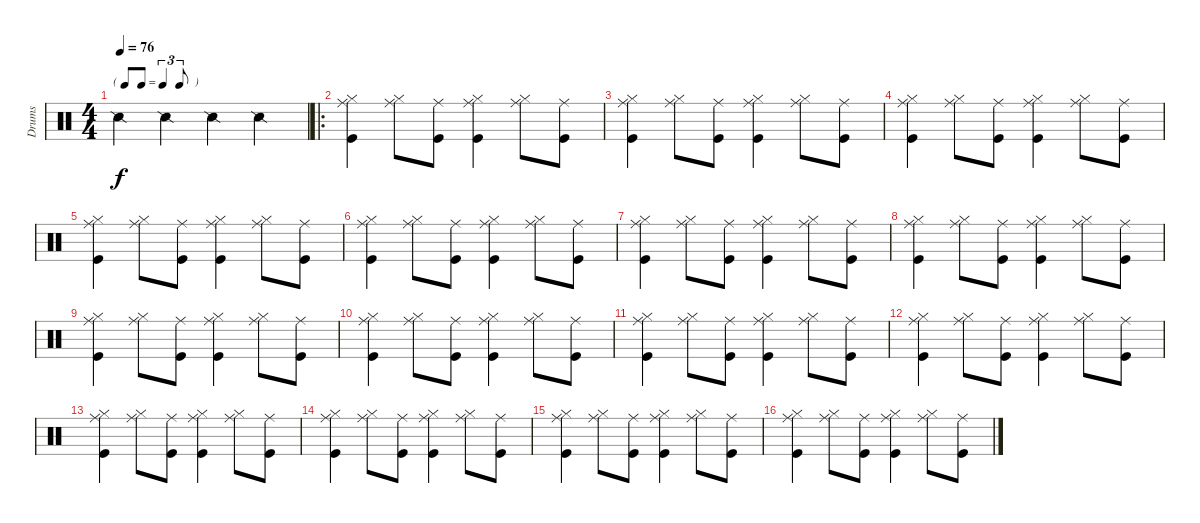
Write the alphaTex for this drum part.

\track ("Drums" "Drums") {instrument percussion}
\staff {score}
\articulation defaults
\ts (4 4)
\tf triplet8th
\tempo 76
\clef neutral
\ks c "Snare (side stick) 2".4{dy f} "Snare (side stick) 2".4 "Snare (side stick) 2".4 "Snare (side stick) 2".4
|
\ro
("Ride (middle)" "Hi-Hat (closed)" "Kick (hit)").4 ("Hi-Hat (closed)" "Ride (middle)").8 ("Kick (hit)" "Ride (middle)").8 ("Hi-Hat (closed)" "Ride (middle)" "Kick (hit)").4 ("Hi-Hat (closed)" "Ride (middle)").8 ("Kick (hit)" "Ride (middle)").8 |
("Kick (hit)" "Hi-Hat (closed)" "Ride (middle)").4 ("Hi-Hat (closed)" "Ride (middle)").8 ("Kick (hit)" "Ride (middle)").8 ("Hi-Hat (closed)" "Ride (middle)" "Kick (hit)").4 ("Hi-Hat (closed)" "Ride (middle)").8 ("Kick (hit)" "Ride (middle)").8 |
("Kick (hit)" "Hi-Hat (closed)" "Ride (middle)").4 ("Hi-Hat (closed)" "Ride (middle)").8 ("Kick (hit)" "Ride (middle)").8 ("Hi-Hat (closed)" "Ride (middle)" "Kick (hit)").4 ("Hi-Hat (closed)" "Ride (middle)").8 ("Kick (hit)" "Ride (middle)").8 |
("Kick (hit)" "Hi-Hat (closed)" "Ride (middle)").4 ("Hi-Hat (closed)" "Ride (middle)").8 ("Kick (hit)" "Ride (middle)").8 ("Hi-Hat (closed)" "Ride (middle)" "Kick (hit)").4 ("Hi-Hat (closed)" "Ride (middle)").8 ("Kick (hit)" "Ride (middle)").8 |
("Kick (hit)" "Hi-Hat (closed)" "Ride (middle)").4 ("Hi-Hat (closed)" "Ride (middle)").8 ("Kick (hit)" "Ride (middle)").8 ("Hi-Hat (closed)" "Ride (middle)" "Kick (hit)").4 ("Hi-Hat (closed)" "Ride (middle)").8 ("Kick (hit)" "Ride (middle)").8 |
("Kick (hit)" "Hi-Hat (closed)" "Ride (middle)").4 ("Hi-Hat (closed)" "Ride (middle)").8 ("Kick (hit)" "Ride (middle)").8 ("Hi-Hat (closed)" "Ride (middle)" "Kick (hit)").4 ("Hi-Hat (closed)" "Ride (middle)").8 ("Kick (hit)" "Ride (middle)").8 |
("Kick (hit)" "Hi-Hat (closed)" "Ride (middle)").4 ("Hi-Hat (closed)" "Ride (middle)").8 ("Kick (hit)" "Ride (middle)").8 ("Hi-Hat (closed)" "Ride (middle)" "Kick (hit)").4 ("Hi-Hat (closed)" "Ride (middle)").8 ("Kick (hit)" "Ride (middle)").8 |
("Kick (hit)" "Hi-Hat (closed)" "Ride (middle)").4 ("Hi-Hat (closed)" "Ride (middle)").8 ("Kick (hit)" "Ride (middle)").8 ("Hi-Hat (closed)" "Ride (middle)" "Kick (hit)").4 ("Hi-Hat (closed)" "Ride (middle)").8 ("Kick (hit)" "Ride (middle)").8 |
("Kick (hit)" "Hi-Hat (closed)" "Ride (middle)").4 ("Hi-Hat (closed)" "Ride (middle)").8 ("Kick (hit)" "Ride (middle)").8 ("Hi-Hat (closed)" "Ride (middle)" "Kick (hit)").4 ("Hi-Hat (closed)" "Ride (middle)").8 ("Kick (hit)" "Ride (middle)").8 |
("Kick (hit)" "Hi-Hat (closed)" "Ride (middle)").4 ("Hi-Hat (closed)" "Ride (middle)").8 ("Kick (hit)" "Ride (middle)").8 ("Hi-Hat (closed)" "Ride (middle)" "Kick (hit)").4 ("Hi-Hat (closed)" "Ride (middle)").8 ("Kick (hit)" "Ride (middle)").8 |
("Kick (hit)" "Hi-Hat (closed)" "Ride (middle)").4 ("Hi-Hat (closed)" "Ride (middle)").8 ("Kick (hit)" "Ride (middle)").8 ("Hi-Hat (closed)" "Ride (middle)" "Kick (hit)").4 ("Hi-Hat (closed)" "Ride (middle)").8 ("Kick (hit)" "Ride (middle)").8 |
("Kick (hit)" "Hi-Hat (closed)" "Ride (middle)").4 ("Hi-Hat (closed)" "Ride (middle)").8 ("Kick (hit)" "Ride (middle)").8 ("Hi-Hat (closed)" "Ride (middle)" "Kick (hit)").4 ("Hi-Hat (closed)" "Ride (middle)").8 ("Kick (hit)" "Ride (middle)").8 |
("Kick (hit)" "Hi-Hat (closed)" "Ride (middle)").4 ("Hi-Hat (closed)" "Ride (middle)").8 ("Kick (hit)" "Ride (middle)").8 ("Hi-Hat (closed)" "Ride (middle)" "Kick (hit)").4 ("Hi-Hat (closed)" "Ride (middle)").8 ("Kick (hit)" "Ride (middle)").8 |
("Kick (hit)" "Hi-Hat (closed)" "Ride (middle)").4 ("Hi-Hat (closed)" "Ride (middle)").8 ("Kick (hit)" "Ride (middle)").8 ("Hi-Hat (closed)" "Ride (middle)" "Kick (hit)").4 ("Hi-Hat (closed)" "Ride (middle)").8 ("Kick (hit)" "Ride (middle)").8 |
("Kick (hit)" "Hi-Hat (closed)" "Ride (middle)").4 ("Hi-Hat (closed)" "Ride (middle)").8 ("Kick (hit)" "Ride (middle)").8 ("Hi-Hat (closed)" "Ride (middle)" "Kick (hit)").4 ("Hi-Hat (closed)" "Ride (middle)").8 ("Kick (hit)" "Ride (middle)").8
